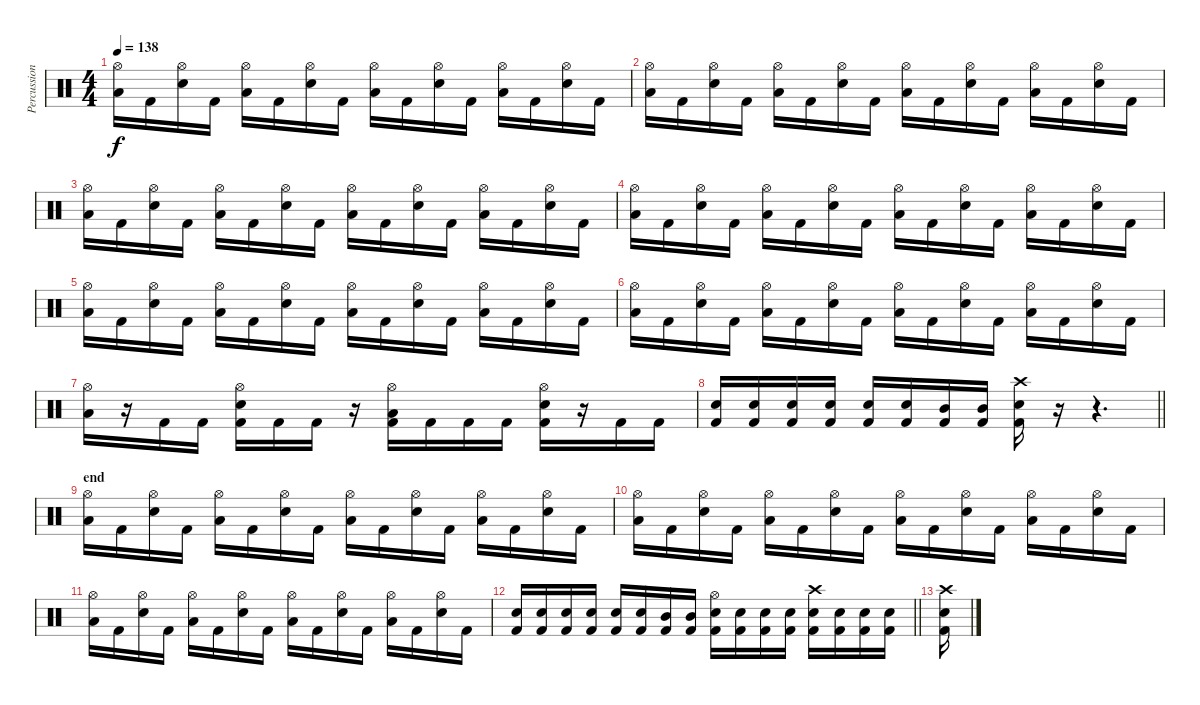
\track ("Percussion" "Percussion") {instrument percussion}
\staff {score}
\articulation defaults
\ts (4 4)
\tempo 138
\clef neutral
\ks c
("Hi-Hat (open)" "Low Tom (hit)").16{dy f} "Kick (hit) 2".16 ("Hi-Hat (open)" "Snare (hit) 2").16 "Kick (hit) 2".16 ("Hi-Hat (open)" "Low Tom (hit)").16 "Kick (hit) 2".16 ("Hi-Hat (open)" "Snare (hit) 2").16 "Kick (hit) 2".16 ("Hi-Hat (open)" "Low Tom (hit)").16 "Kick (hit) 2".16 ("Hi-Hat (open)" "Snare (hit) 2").16 "Kick (hit) 2".16 ("Hi-Hat (open)" "Low Tom (hit)").16 "Kick (hit) 2".16 ("Hi-Hat (open)" "Snare (hit) 2").16 "Kick (hit) 2".16 |
("Hi-Hat (open)" "Low Tom (hit)").16 "Kick (hit) 2".16 ("Hi-Hat (open)" "Snare (hit) 2").16 "Kick (hit) 2".16 ("Hi-Hat (open)" "Low Tom (hit)").16 "Kick (hit) 2".16 ("Hi-Hat (open)" "Snare (hit) 2").16 "Kick (hit) 2".16 ("Hi-Hat (open)" "Low Tom (hit)").16 "Kick (hit) 2".16 ("Hi-Hat (open)" "Snare (hit) 2").16 "Kick (hit) 2".16 ("Hi-Hat (open)" "Low Tom (hit)").16 "Kick (hit) 2".16 ("Hi-Hat (open)" "Snare (hit) 2").16 "Kick (hit) 2".16 |
("Hi-Hat (open)" "Low Tom (hit)").16 "Kick (hit) 2".16 ("Hi-Hat (open)" "Snare (hit) 2").16 "Kick (hit) 2".16 ("Hi-Hat (open)" "Low Tom (hit)").16 "Kick (hit) 2".16 ("Hi-Hat (open)" "Snare (hit) 2").16 "Kick (hit) 2".16 ("Hi-Hat (open)" "Low Tom (hit)").16 "Kick (hit) 2".16 ("Hi-Hat (open)" "Snare (hit) 2").16 "Kick (hit) 2".16 ("Hi-Hat (open)" "Low Tom (hit)").16 "Kick (hit) 2".16 ("Hi-Hat (open)" "Snare (hit) 2").16 "Kick (hit) 2".16 |
("Hi-Hat (open)" "Low Tom (hit)").16 "Kick (hit) 2".16 ("Hi-Hat (open)" "Snare (hit) 2").16 "Kick (hit) 2".16 ("Hi-Hat (open)" "Low Tom (hit)").16 "Kick (hit) 2".16 ("Hi-Hat (open)" "Snare (hit) 2").16 "Kick (hit) 2".16 ("Hi-Hat (open)" "Low Tom (hit)").16 "Kick (hit) 2".16 ("Hi-Hat (open)" "Snare (hit) 2").16 "Kick (hit) 2".16 ("Hi-Hat (open)" "Low Tom (hit)").16 "Kick (hit) 2".16 ("Hi-Hat (open)" "Snare (hit) 2").16 "Kick (hit) 2".16 |
("Hi-Hat (open)" "Low Tom (hit)").16 "Kick (hit) 2".16 ("Hi-Hat (open)" "Snare (hit) 2").16 "Kick (hit) 2".16 ("Hi-Hat (open)" "Low Tom (hit)").16 "Kick (hit) 2".16 ("Hi-Hat (open)" "Snare (hit) 2").16 "Kick (hit) 2".16 ("Hi-Hat (open)" "Low Tom (hit)").16 "Kick (hit) 2".16 ("Hi-Hat (open)" "Snare (hit) 2").16 "Kick (hit) 2".16 ("Hi-Hat (open)" "Low Tom (hit)").16 "Kick (hit) 2".16 ("Hi-Hat (open)" "Snare (hit) 2").16 "Kick (hit) 2".16 |
("Hi-Hat (open)" "Low Tom (hit)").16 "Kick (hit) 2".16 ("Hi-Hat (open)" "Snare (hit) 2").16 "Kick (hit) 2".16 ("Hi-Hat (open)" "Low Tom (hit)").16 "Kick (hit) 2".16 ("Hi-Hat (open)" "Snare (hit) 2").16 "Kick (hit) 2".16 ("Hi-Hat (open)" "Low Tom (hit)").16 "Kick (hit) 2".16 ("Hi-Hat (open)" "Snare (hit) 2").16 "Kick (hit) 2".16 ("Hi-Hat (open)" "Low Tom (hit)").16 "Kick (hit) 2".16 ("Hi-Hat (open)" "Snare (hit) 2").16 "Kick (hit) 2".16 |
("Hi-Hat (open)" "Low Tom (hit)").16 r.16 "Kick (hit) 2".16 "Kick (hit) 2".16 ("Hi-Hat (open)" "Snare (hit) 2" "Kick (hit) 2").16 "Kick (hit) 2".16 "Kick (hit) 2".16 r.16 ("Hi-Hat (open)" "Low Tom (hit)" "Kick (hit) 2").16 "Kick (hit) 2".16 "Kick (hit) 2".16 "Kick (hit) 2".16 ("Hi-Hat (open)" "Snare (hit) 2" "Kick (hit) 2").16 r.16 "Kick (hit) 2".16 "Kick (hit) 2".16 |
\barLineRight lightlight
("Snare (hit) 2" "Kick (hit) 2").16 ("Snare (hit) 2" "Kick (hit) 2").16 ("Snare (hit) 2" "Kick (hit) 2").16 ("Snare (hit) 2" "Kick (hit) 2").16 ("Snare (hit) 2" "Kick (hit) 2").16 ("Snare (hit) 2" "Kick (hit) 2").16 ("Mid Tom (hit)" "Kick (hit) 2").16 ("Mid Tom (hit)" "Kick (hit) 2").16 ("Crash high (hit)" "Snare (hit) 2" "Kick (hit) 2").16 r.16 r.4{d} |
\section ("" "end")
("Hi-Hat (open)" "Low Tom (hit)").16 "Kick (hit) 2".16 ("Hi-Hat (open)" "Snare (hit) 2").16 "Kick (hit) 2".16 ("Hi-Hat (open)" "Low Tom (hit)").16 "Kick (hit) 2".16 ("Hi-Hat (open)" "Snare (hit) 2").16 "Kick (hit) 2".16 ("Hi-Hat (open)" "Low Tom (hit)").16 "Kick (hit) 2".16 ("Hi-Hat (open)" "Snare (hit) 2").16 "Kick (hit) 2".16 ("Hi-Hat (open)" "Low Tom (hit)").16 "Kick (hit) 2".16 ("Hi-Hat (open)" "Snare (hit) 2").16 "Kick (hit) 2".16 |
("Hi-Hat (open)" "Low Tom (hit)").16 "Kick (hit) 2".16 ("Hi-Hat (open)" "Snare (hit) 2").16 "Kick (hit) 2".16 ("Hi-Hat (open)" "Low Tom (hit)").16 "Kick (hit) 2".16 ("Hi-Hat (open)" "Snare (hit) 2").16 "Kick (hit) 2".16 ("Hi-Hat (open)" "Low Tom (hit)").16 "Kick (hit) 2".16 ("Hi-Hat (open)" "Snare (hit) 2").16 "Kick (hit) 2".16 ("Hi-Hat (open)" "Low Tom (hit)").16 "Kick (hit) 2".16 ("Hi-Hat (open)" "Snare (hit) 2").16 "Kick (hit) 2".16 |
("Hi-Hat (open)" "Low Tom (hit)").16 "Kick (hit) 2".16 ("Hi-Hat (open)" "Snare (hit) 2").16 "Kick (hit) 2".16 ("Hi-Hat (open)" "Low Tom (hit)").16 "Kick (hit) 2".16 ("Hi-Hat (open)" "Snare (hit) 2").16 "Kick (hit) 2".16 ("Hi-Hat (open)" "Low Tom (hit)").16 "Kick (hit) 2".16 ("Hi-Hat (open)" "Snare (hit) 2").16 "Kick (hit) 2".16 ("Hi-Hat (open)" "Low Tom (hit)").16 "Kick (hit) 2".16 ("Hi-Hat (open)" "Snare (hit) 2").16 "Kick (hit) 2".16 |
\barLineRight lightlight
("Snare (hit) 2" "Kick (hit) 2").16 ("Snare (hit) 2" "Kick (hit) 2").16 ("Snare (hit) 2" "Kick (hit) 2").16 ("Snare (hit) 2" "Kick (hit) 2").16 ("Snare (hit) 2" "Kick (hit) 2").16 ("Snare (hit) 2" "Kick (hit) 2").16 ("Mid Tom (hit)" "Kick (hit) 2").16 ("Mid Tom (hit)" "Kick (hit) 2").16 ("Hi-Hat (open)" "Snare (hit) 2" "Kick (hit) 2").16 ("Snare (hit) 2" "Kick (hit) 2").16 ("Snare (hit) 2" "Kick (hit) 2").16 ("Snare (hit) 2" "Kick (hit) 2").16 ("Crash high (hit)" "Snare (hit) 2" "Kick (hit) 2").16 ("Snare (hit) 2" "Kick (hit) 2").16 ("Snare (hit) 2" "Kick (hit) 2").16 ("Snare (hit) 2" "Kick (hit) 2").16 |
("Crash high (hit)" "Snare (hit) 2" "Kick (hit) 2").16
